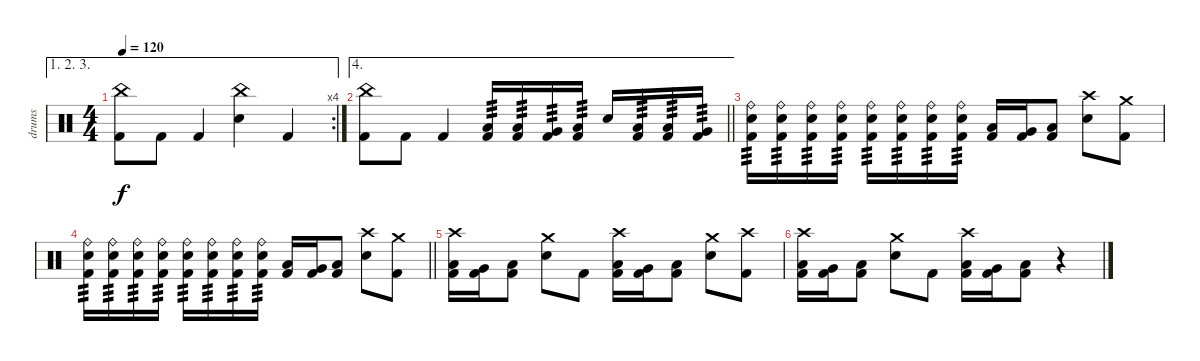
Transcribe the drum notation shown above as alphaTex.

\track ("drums" "drums") {instrument percussion}
\staff {score}
\articulation defaults
\ae (1 2 3)
\rc 4
\ts (4 4)
\tempo 120
\clef neutral
\ks c
("China (hit)" "Kick (hit) 2").8{dy f} "Kick (hit) 2".8 "Kick (hit) 2".4 ("China (hit)" "Electric Snare (hit)").4 "Kick (hit) 2".4 |
\ae 4
\barLineRight lightlight
("China (hit)" "Kick (hit) 2").8 "Kick (hit) 2".8 "Kick (hit) 2".4 ("Low Tom (hit)" "Kick (hit) 2").16{tp 3} ("Low Tom (hit)" "Kick (hit) 2").16{tp 3} ("Very Low Tom (hit)" "Kick (hit) 2").16{tp 3} ("Low Tom (hit)" "Kick (hit) 2").16{tp 3} "Electric Snare (hit)".16 ("Low Tom (hit)" "Kick (hit) 2").16{tp 3} ("Low Tom (hit)" "Kick (hit) 2").16{tp 3} ("Very Low Tom (hit)" "Kick (hit) 2").16{tp 3} |
("Ride (bell)" "Electric Snare (hit)" "Kick (hit) 2").16{tp 3} ("Ride (bell)" "Electric Snare (hit)" "Kick (hit) 2").16{tp 3} ("Ride (bell)" "Electric Snare (hit)" "Kick (hit) 2").16{tp 3} ("Ride (bell)" "Electric Snare (hit)" "Kick (hit) 2").16{tp 3} ("Ride (bell)" "Electric Snare (hit)" "Kick (hit) 2").16{tp 3} ("Ride (bell)" "Electric Snare (hit)" "Kick (hit) 2").16{tp 3} ("Ride (bell)" "Electric Snare (hit)" "Kick (hit) 2").16{tp 3} ("Ride (bell)" "Electric Snare (hit)" "Kick (hit) 2").16{tp 3} ("Low Tom (hit)" "Kick (hit) 2").16 ("Very Low Tom (hit)" "Kick (hit) 2").16 ("Low Tom (hit)" "Kick (hit) 2").8 ("Crash high (hit)" "Electric Snare (hit)").8 ("Crash medium (hit)" "Kick (hit) 2").8 |
\barLineRight lightlight
("Ride (bell)" "Electric Snare (hit)" "Kick (hit) 2").16{tp 3} ("Ride (bell)" "Electric Snare (hit)" "Kick (hit) 2").16{tp 3} ("Ride (bell)" "Electric Snare (hit)" "Kick (hit) 2").16{tp 3} ("Ride (bell)" "Electric Snare (hit)" "Kick (hit) 2").16{tp 3} ("Ride (bell)" "Electric Snare (hit)" "Kick (hit) 2").16{tp 3} ("Ride (bell)" "Electric Snare (hit)" "Kick (hit) 2").16{tp 3} ("Ride (bell)" "Electric Snare (hit)" "Kick (hit) 2").16{tp 3} ("Ride (bell)" "Electric Snare (hit)" "Kick (hit) 2").16{tp 3} ("Low Tom (hit)" "Kick (hit) 2").16 ("Very Low Tom (hit)" "Kick (hit) 2").16 ("Low Tom (hit)" "Kick (hit) 2").8 ("Crash high (hit)" "Electric Snare (hit)").8 ("Crash medium (hit)" "Kick (hit) 2").8 |
("Crash high (hit)" "Low Tom (hit)" "Kick (hit) 2").16 ("Very Low Tom (hit)" "Kick (hit) 2").16 ("Low Tom (hit)" "Kick (hit) 2").8 ("Crash medium (hit)" "Electric Snare (hit)").8 "Kick (hit) 2".8 ("Crash high (hit)" "Low Tom (hit)" "Kick (hit) 2").16 ("Very Low Tom (hit)" "Kick (hit) 2").16 ("Low Tom (hit)" "Kick (hit) 2").8 ("Crash medium (hit)" "Electric Snare (hit)").8 ("Crash high (hit)" "Kick (hit) 2").8 |
("Crash high (hit)" "Low Tom (hit)" "Kick (hit) 2").16 ("Very Low Tom (hit)" "Kick (hit) 2").16 ("Low Tom (hit)" "Kick (hit) 2").8 ("Crash medium (hit)" "Electric Snare (hit)").8 "Kick (hit) 2".8 ("Crash high (hit)" "Low Tom (hit)" "Kick (hit) 2").16 ("Very Low Tom (hit)" "Kick (hit) 2").16 ("Low Tom (hit)" "Kick (hit) 2").8 r.4
